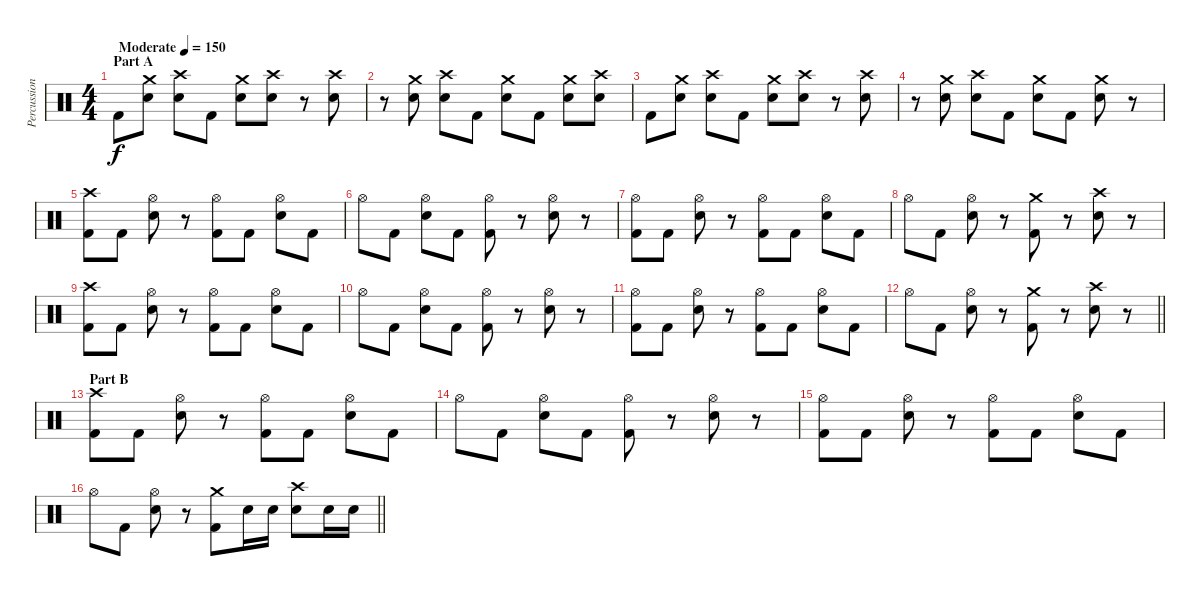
\track ("Percussion" "Percussion") {instrument percussion}
\staff {score}
\articulation defaults
\ts (4 4)
\section ("" "Part A")
\tempo (150 "Moderate")
\clef neutral
\ks c "Kick (hit) 2".8{dy f}
("Crash medium (hit)" "Electric Snare (hit)").8 ("Crash high (hit)" "Electric Snare (hit)").8 "Kick (hit) 2".8 ("Crash medium (hit)" "Electric Snare (hit)").8 ("Crash high (hit)" "Electric Snare (hit)").8 r.8 ("Crash high (hit)" "Electric Snare (hit)").8 |
r.8 ("Crash medium (hit)" "Electric Snare (hit)").8 ("Crash high (hit)" "Electric Snare (hit)").8 "Kick (hit) 2".8 ("Crash medium (hit)" "Electric Snare (hit)").8 "Kick (hit) 2".8 ("Crash medium (hit)" "Electric Snare (hit)").8 ("Crash high (hit)" "Electric Snare (hit)").8 |
"Kick (hit) 2".8 ("Crash medium (hit)" "Electric Snare (hit)").8 ("Crash high (hit)" "Electric Snare (hit)").8 "Kick (hit) 2".8 ("Crash medium (hit)" "Electric Snare (hit)").8 ("Crash high (hit)" "Electric Snare (hit)").8 r.8 ("Crash high (hit)" "Electric Snare (hit)").8 |
r.8 ("Crash medium (hit)" "Electric Snare (hit)").8 ("Crash high (hit)" "Electric Snare (hit)").8 "Kick (hit) 2".8 ("Crash medium (hit)" "Electric Snare (hit)").8 "Kick (hit) 2".8 ("Crash medium (hit)" "Electric Snare (hit)").8 r.8 |
("Crash high (hit)" "Kick (hit) 2").8 "Kick (hit) 2".8 ("Hi-Hat (open)" "Electric Snare (hit)").8 r.8 ("Hi-Hat (open)" "Kick (hit) 2").8 "Kick (hit) 2".8 ("Hi-Hat (open)" "Electric Snare (hit)").8 "Kick (hit) 2".8 |
"Hi-Hat (open)".8 "Kick (hit) 2".8 ("Hi-Hat (open)" "Electric Snare (hit)").8 "Kick (hit) 2".8 ("Hi-Hat (open)" "Kick (hit) 2").8 r.8 ("Hi-Hat (open)" "Electric Snare (hit)").8 r.8 |
("Hi-Hat (open)" "Kick (hit) 2").8 "Kick (hit) 2".8 ("Hi-Hat (open)" "Electric Snare (hit)").8 r.8 ("Hi-Hat (open)" "Kick (hit) 2").8 "Kick (hit) 2".8 ("Hi-Hat (open)" "Electric Snare (hit)").8 "Kick (hit) 2".8 |
"Hi-Hat (open)".8 "Kick (hit) 2".8 ("Hi-Hat (open)" "Electric Snare (hit)").8 r.8 ("Crash medium (hit)" "Kick (hit) 2").8 r.8 ("Crash high (hit)" "Electric Snare (hit)").8 r.8 |
("Crash high (hit)" "Kick (hit) 2").8 "Kick (hit) 2".8 ("Hi-Hat (open)" "Electric Snare (hit)").8 r.8 ("Hi-Hat (open)" "Kick (hit) 2").8 "Kick (hit) 2".8 ("Hi-Hat (open)" "Electric Snare (hit)").8 "Kick (hit) 2".8 |
"Hi-Hat (open)".8 "Kick (hit) 2".8 ("Hi-Hat (open)" "Electric Snare (hit)").8 "Kick (hit) 2".8 ("Hi-Hat (open)" "Kick (hit) 2").8 r.8 ("Hi-Hat (open)" "Electric Snare (hit)").8 r.8 |
("Hi-Hat (open)" "Kick (hit) 2").8 "Kick (hit) 2".8 ("Hi-Hat (open)" "Electric Snare (hit)").8 r.8 ("Hi-Hat (open)" "Kick (hit) 2").8 "Kick (hit) 2".8 ("Hi-Hat (open)" "Electric Snare (hit)").8 "Kick (hit) 2".8 |
\barLineRight lightlight "Hi-Hat (open)".8 "Kick (hit) 2".8
("Hi-Hat (open)" "Electric Snare (hit)").8 r.8 ("Crash medium (hit)" "Kick (hit) 2").8 r.8 ("Crash high (hit)" "Electric Snare (hit)").8 r.8 |
\section ("" "Part B")
("Crash high (hit)" "Kick (hit) 2").8 "Kick (hit) 2".8 ("Hi-Hat (open)" "Electric Snare (hit)").8 r.8 ("Hi-Hat (open)" "Kick (hit) 2").8 "Kick (hit) 2".8 ("Hi-Hat (open)" "Electric Snare (hit)").8 "Kick (hit) 2".8 |
"Hi-Hat (open)".8 "Kick (hit) 2".8 ("Hi-Hat (open)" "Electric Snare (hit)").8 "Kick (hit) 2".8 ("Hi-Hat (open)" "Kick (hit) 2").8 r.8 ("Hi-Hat (open)" "Electric Snare (hit)").8 r.8 |
("Hi-Hat (open)" "Kick (hit) 2").8 "Kick (hit) 2".8 ("Hi-Hat (open)" "Electric Snare (hit)").8 r.8 ("Hi-Hat (open)" "Kick (hit) 2").8 "Kick (hit) 2".8 ("Hi-Hat (open)" "Electric Snare (hit)").8 "Kick (hit) 2".8 |
\barLineRight lightlight "Hi-Hat (open)".8 "Kick (hit) 2".8
("Hi-Hat (open)" "Electric Snare (hit)").8 r.8 ("Crash medium (hit)" "Kick (hit) 2").8 "Electric Snare (hit)".16 "Electric Snare (hit)".16 ("Crash high (hit)" "Electric Snare (hit)").8 "Electric Snare (hit)".16 "Electric Snare (hit)".16
